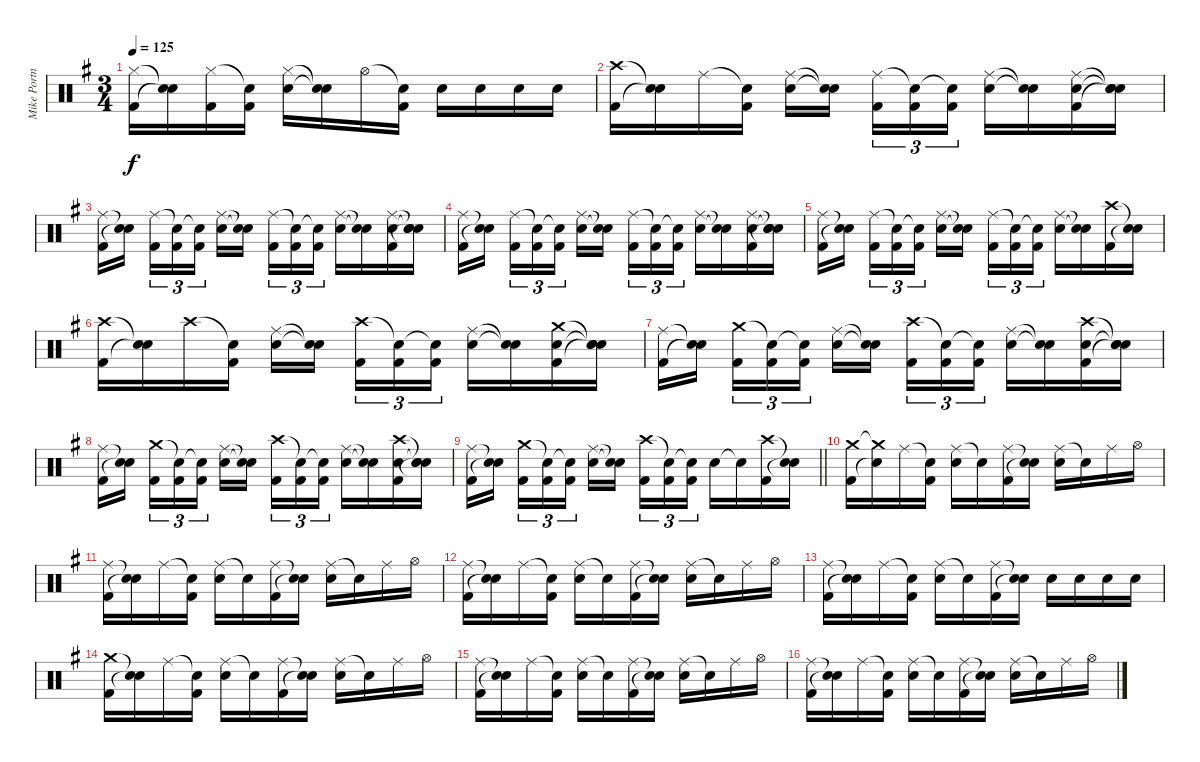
\track ("Mike Portnoy - Drums" "Mike Portn") {instrument percussion}
\staff {score}
\articulation defaults
\ts (3 4)
\tempo 125
\clef neutral
\ks g
("Hi-Hat (closed)" "Kick (hit) 2").16{dy f} ("Snare (hit)"{t} "Snare (hit)"{t}).16 ("Hi-Hat (closed)" "Kick (hit) 2").16 ("Snare (hit)"{t} "Kick (hit) 2").16 ("Hi-Hat (closed)" "Snare (hit) 2").16 ("Snare (hit)"{t} "Snare (hit)"{t}).16 "Hi-Hat (open)".16 ("Snare (hit)"{t} "Kick (hit) 2").16 "Snare (hit) 2".16 "Snare (hit) 2".16 "Snare (hit) 2".16 "Snare (hit) 2".16 |
("Crash high (hit)" "Kick (hit) 2").16 ("Snare (hit)"{t} "Snare (hit)"{t}).16 "Ride (middle)".16 ("Snare (hit)"{t} "Kick (hit) 2").16 ("Ride (middle)" "Snare (hit) 2").16 ("Snare (hit)"{t} "Snare (hit)"{t}).16{beam splitsecondary} ("Ride (middle)" "Kick (hit) 2").16{tu (3 2)} ("Snare (hit)"{t} "Kick (hit) 2").16{tu (3 2)} ("Snare (hit)"{t} "Kick (hit) 2").16{tu (3 2)} ("Ride (middle)" "Snare (hit) 2").16 ("Snare (hit)"{t} "Snare (hit)"{t}).16 ("Ride (middle)" "Snare (hit) 2" "Kick (hit) 2").16 ("Snare (hit)"{t} "Snare (hit)"{t} "Snare (hit)"{t}).16 |
("Ride (middle)" "Kick (hit) 2").16 ("Snare (hit)"{t} "Snare (hit)"{t}).16{beam splitsecondary} ("Ride (middle)" "Kick (hit) 2").16{tu (3 2)} ("Snare (hit)"{t} "Kick (hit) 2").16{tu (3 2)} ("Snare (hit)"{t} "Kick (hit) 2").16{tu (3 2)} ("Ride (middle)" "Snare (hit) 2").16 ("Snare (hit)"{t} "Snare (hit)"{t}).16{beam splitsecondary} ("Ride (middle)" "Kick (hit) 2").16{tu (3 2)} ("Snare (hit)"{t} "Kick (hit) 2").16{tu (3 2)} ("Snare (hit)"{t} "Kick (hit) 2").16{tu (3 2)} ("Ride (middle)" "Snare (hit) 2").16 ("Snare (hit)"{t} "Snare (hit)"{t}).16 ("Ride (middle)" "Snare (hit) 2" "Kick (hit) 2").16 ("Snare (hit)"{t} "Snare (hit)"{t} "Snare (hit)"{t}).16 |
("Ride (middle)" "Kick (hit) 2").16 ("Snare (hit)"{t} "Snare (hit)"{t}).16{beam splitsecondary} ("Ride (middle)" "Kick (hit) 2").16{tu (3 2)} ("Snare (hit)"{t} "Kick (hit) 2").16{tu (3 2)} ("Snare (hit)"{t} "Kick (hit) 2").16{tu (3 2)} ("Ride (middle)" "Snare (hit) 2").16 ("Snare (hit)"{t} "Snare (hit)"{t}).16{beam splitsecondary} ("Ride (middle)" "Kick (hit) 2").16{tu (3 2)} ("Snare (hit)"{t} "Kick (hit) 2").16{tu (3 2)} ("Snare (hit)"{t} "Kick (hit) 2").16{tu (3 2)} ("Ride (middle)" "Snare (hit) 2").16 ("Snare (hit)"{t} "Snare (hit)"{t}).16 ("Ride (middle)" "Snare (hit) 2" "Kick (hit) 2").16 ("Snare (hit)"{t} "Snare (hit)"{t} "Snare (hit)"{t}).16 |
("Ride (middle)" "Kick (hit) 2").16 ("Snare (hit)"{t} "Snare (hit)"{t}).16{beam splitsecondary} ("Ride (middle)" "Kick (hit) 2").16{tu (3 2)} ("Snare (hit)"{t} "Kick (hit) 2").16{tu (3 2)} ("Snare (hit)"{t} "Kick (hit) 2").16{tu (3 2)} ("Ride (middle)" "Snare (hit) 2").16 ("Snare (hit)"{t} "Snare (hit)"{t}).16{beam splitsecondary} ("Ride (middle)" "Kick (hit) 2").16{tu (3 2)} ("Snare (hit)"{t} "Kick (hit) 2").16{tu (3 2)} ("Snare (hit)"{t} "Kick (hit) 2").16{tu (3 2)} ("Ride (middle)" "Snare (hit) 2").16 ("Snare (hit)"{t} "Snare (hit)"{t}).16 ("Crash high (hit)" "Kick (hit) 2").16 ("Snare (hit)"{t} "Snare (hit)"{t}).16 |
("Crash high (hit)" "Kick (hit) 2").16 ("Snare (hit)"{t} "Snare (hit)"{t}).16 "Crash high (hit)".16 ("Snare (hit)"{t} "Kick (hit) 2").16 ("Ride (middle)" "Snare (hit) 2").16 ("Snare (hit)"{t} "Snare (hit)"{t}).16{beam splitsecondary} ("Crash high (hit)" "Kick (hit) 2").16{tu (3 2)} ("Snare (hit)"{t} "Kick (hit) 2").16{tu (3 2)} ("Snare (hit)"{t} "Kick (hit) 2").16{tu (3 2)} ("Ride (middle)" "Snare (hit) 2").16 ("Snare (hit)"{t} "Snare (hit)"{t}).16 ("Crash medium (hit)" "Snare (hit) 2" "Kick (hit) 2").16 ("Snare (hit)"{t} "Snare (hit)"{t} "Snare (hit)"{t}).16 |
("Ride (middle)" "Kick (hit) 2").16 ("Snare (hit)"{t} "Snare (hit)"{t}).16{beam splitsecondary} ("Crash medium (hit)" "Kick (hit) 2").16{tu (3 2)} ("Snare (hit)"{t} "Kick (hit) 2").16{tu (3 2)} ("Snare (hit)"{t} "Kick (hit) 2").16{tu (3 2)} ("Ride (middle)" "Snare (hit) 2").16 ("Snare (hit)"{t} "Snare (hit)"{t}).16{beam splitsecondary} ("Crash high (hit)" "Kick (hit) 2").16{tu (3 2)} ("Snare (hit)"{t} "Kick (hit) 2").16{tu (3 2)} ("Snare (hit)"{t} "Kick (hit) 2").16{tu (3 2)} ("Ride (middle)" "Snare (hit) 2").16 ("Snare (hit)"{t} "Snare (hit)"{t}).16 ("Crash high (hit)" "Snare (hit) 2" "Kick (hit) 2").16 ("Snare (hit)"{t} "Snare (hit)"{t} "Snare (hit)"{t}).16 |
("Ride (middle)" "Kick (hit) 2").16 ("Snare (hit)"{t} "Snare (hit)"{t}).16{beam splitsecondary} ("Crash medium (hit)" "Kick (hit) 2").16{tu (3 2)} ("Snare (hit)"{t} "Kick (hit) 2").16{tu (3 2)} ("Snare (hit)"{t} "Kick (hit) 2").16{tu (3 2)} ("Ride (middle)" "Snare (hit) 2").16 ("Snare (hit)"{t} "Snare (hit)"{t}).16{beam splitsecondary} ("Crash high (hit)" "Kick (hit) 2").16{tu (3 2)} ("Snare (hit)"{t} "Kick (hit) 2").16{tu (3 2)} ("Snare (hit)"{t} "Kick (hit) 2").16{tu (3 2)} ("Ride (middle)" "Snare (hit) 2").16 ("Snare (hit)"{t} "Snare (hit)"{t}).16 ("Crash high (hit)" "Snare (hit) 2" "Kick (hit) 2").16 ("Snare (hit)"{t} "Snare (hit)"{t} "Snare (hit)"{t}).16 |
\barLineRight lightlight
("Ride (middle)" "Kick (hit) 2").16 ("Snare (hit)"{t} "Snare (hit)"{t}).16{beam splitsecondary} ("Crash medium (hit)" "Kick (hit) 2").16{tu (3 2)} ("Snare (hit)"{t} "Kick (hit) 2").16{tu (3 2)} ("Snare (hit)"{t} "Kick (hit) 2").16{tu (3 2)} ("Ride (middle)" "Snare (hit) 2").16 ("Snare (hit)"{t} "Snare (hit)"{t}).16{beam splitsecondary} ("Crash high (hit)" "Kick (hit) 2").16{tu (3 2)} ("Snare (hit)"{t} "Kick (hit) 2").16{tu (3 2)} ("Snare (hit)"{t} "Kick (hit) 2").16{tu (3 2)} "Snare (hit) 2".16 "Snare (hit)"{t}.16 ("Crash high (hit)" "Kick (hit) 2").16 ("Snare (hit)"{t} "Snare (hit)"{t}).16 |
("Crash medium (hit)" "Kick (hit) 2").16 ("Crash medium (hit)"{t} "Snare (hit)"{t}).16 "Ride (middle)".16 ("Snare (hit)"{t} "Kick (hit) 2").16 ("Ride (middle)" "Snare (hit) 2").16 "Snare (hit)"{t}.16 ("Ride (middle)" "Kick (hit) 2").16 ("Snare (hit)"{t} "Snare (hit)"{t}).16 ("Ride (middle)" "Snare (hit) 2").16 "Snare (hit)"{t}.16 "Ride (middle)".16 "Hi-Hat (open)".16 |
("Ride (middle)" "Kick (hit) 2").16 ("Snare (hit)"{t} "Snare (hit)"{t}).16 "Ride (middle)".16 ("Snare (hit)"{t} "Kick (hit) 2").16 ("Ride (middle)" "Snare (hit) 2").16 "Snare (hit)"{t}.16 ("Ride (middle)" "Kick (hit) 2").16 ("Snare (hit)"{t} "Snare (hit)"{t}).16 ("Ride (middle)" "Snare (hit) 2").16 "Snare (hit)"{t}.16 "Ride (middle)".16 "Hi-Hat (open)".16 |
("Ride (middle)" "Kick (hit) 2").16 ("Snare (hit)"{t} "Snare (hit)"{t}).16 "Ride (middle)".16 ("Snare (hit)"{t} "Kick (hit) 2").16 ("Ride (middle)" "Snare (hit) 2").16 "Snare (hit)"{t}.16 ("Ride (middle)" "Kick (hit) 2").16 ("Snare (hit)"{t} "Snare (hit)"{t}).16 ("Ride (middle)" "Snare (hit) 2").16 "Snare (hit)"{t}.16 "Ride (middle)".16 "Hi-Hat (open)".16 |
("Ride (middle)" "Kick (hit) 2").16 ("Snare (hit)"{t} "Snare (hit)"{t}).16 "Ride (middle)".16 ("Snare (hit)"{t} "Kick (hit) 2").16 ("Ride (middle)" "Snare (hit) 2").16 "Snare (hit)"{t}.16 ("Ride (middle)" "Kick (hit) 2").16 ("Snare (hit)"{t} "Snare (hit)"{t}).16 "Snare (hit) 2".16 "Snare (hit) 2".16 "Snare (hit) 2".16 "Snare (hit) 2".16 |
("Crash medium (hit)" "Kick (hit) 2").16 ("Snare (hit)"{t} "Snare (hit)"{t}).16 "Ride (middle)".16 ("Snare (hit)"{t} "Kick (hit) 2").16 ("Ride (middle)" "Snare (hit) 2").16 "Snare (hit)"{t}.16 ("Ride (middle)" "Kick (hit) 2").16 ("Snare (hit)"{t} "Snare (hit)"{t}).16 ("Ride (middle)" "Snare (hit) 2").16 "Snare (hit)"{t}.16 "Ride (middle)".16 "Hi-Hat (open)".16 |
("Ride (middle)" "Kick (hit) 2").16 ("Snare (hit)"{t} "Snare (hit)"{t}).16 "Ride (middle)".16 ("Snare (hit)"{t} "Kick (hit) 2").16 ("Ride (middle)" "Snare (hit) 2").16 "Snare (hit)"{t}.16 ("Ride (middle)" "Kick (hit) 2").16 ("Snare (hit)"{t} "Snare (hit)"{t}).16 ("Ride (middle)" "Snare (hit) 2").16 "Snare (hit)"{t}.16 "Ride (middle)".16 "Hi-Hat (open)".16 |
("Ride (middle)" "Kick (hit) 2").16 ("Snare (hit)"{t} "Snare (hit)"{t}).16 "Ride (middle)".16 ("Snare (hit)"{t} "Kick (hit) 2").16 ("Ride (middle)" "Snare (hit) 2").16 "Snare (hit)"{t}.16 ("Ride (middle)" "Kick (hit) 2").16 ("Snare (hit)"{t} "Snare (hit)"{t}).16 ("Ride (middle)" "Snare (hit) 2").16 "Snare (hit)"{t}.16 "Ride (middle)".16 "Hi-Hat (open)".16
